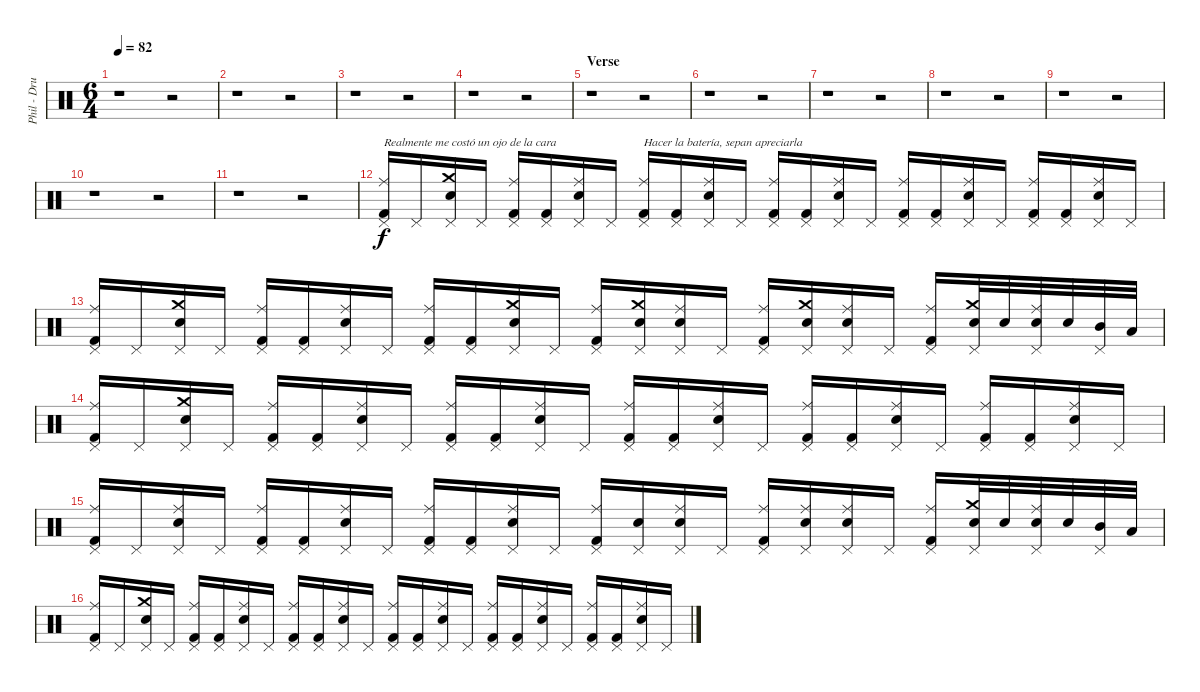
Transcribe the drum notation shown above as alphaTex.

\track ("Phil - Drums" "Phil - Dru") {instrument percussion}
\staff {score}
\articulation defaults
\ts (6 4)
\tempo 82
\clef neutral
\ks c
r.1{dy f} r.2 |
r.1 r.2 |
r.1 r.2 |
r.1 r.2 |
\section ("" "Verse")
r.1 r.2 |
r.1 r.2 |
r.1 r.2 |
r.1 r.2 |
r.1 r.2 |
r.1 r.2 |
r.1 r.2 |
("Ride (middle)" "Kick (hit) 2" "Pedal Hi-Hat (hit)").16{txt "Realmente me costó un ojo de la cara"} "Pedal Hi-Hat (hit)".16 ("Crash medium (hit)" "Electric Snare (hit)" "Pedal Hi-Hat (hit)").16 "Pedal Hi-Hat (hit)".16 ("Ride (middle)" "Kick (hit) 2" "Pedal Hi-Hat (hit)").16 ("Kick (hit) 2" "Pedal Hi-Hat (hit)").16 ("Ride (middle)" "Electric Snare (hit)" "Pedal Hi-Hat (hit)").16 "Pedal Hi-Hat (hit)".16 ("Ride (middle)" "Kick (hit) 2" "Pedal Hi-Hat (hit)").16{txt "Hacer la batería, sepan apreciarla"} ("Kick (hit) 2" "Pedal Hi-Hat (hit)").16 ("Ride (middle)" "Electric Snare (hit)" "Pedal Hi-Hat (hit)").16 "Pedal Hi-Hat (hit)".16 ("Ride (middle)" "Kick (hit) 2" "Pedal Hi-Hat (hit)").16 ("Kick (hit) 2" "Pedal Hi-Hat (hit)").16 ("Ride (middle)" "Electric Snare (hit)" "Pedal Hi-Hat (hit)").16 "Pedal Hi-Hat (hit)".16 ("Ride (middle)" "Kick (hit) 2" "Pedal Hi-Hat (hit)").16 ("Kick (hit) 2" "Pedal Hi-Hat (hit)").16 ("Ride (middle)" "Electric Snare (hit)" "Pedal Hi-Hat (hit)").16 "Pedal Hi-Hat (hit)".16 ("Ride (middle)" "Kick (hit) 2" "Pedal Hi-Hat (hit)").16 ("Kick (hit) 2" "Pedal Hi-Hat (hit)").16 ("Ride (middle)" "Electric Snare (hit)" "Pedal Hi-Hat (hit)").16 "Pedal Hi-Hat (hit)".16 |
("Ride (middle)" "Kick (hit) 2" "Pedal Hi-Hat (hit)").16 "Pedal Hi-Hat (hit)".16 ("Crash medium (hit)" "Electric Snare (hit)" "Pedal Hi-Hat (hit)").16 "Pedal Hi-Hat (hit)".16 ("Ride (middle)" "Kick (hit) 2" "Pedal Hi-Hat (hit)").16 ("Kick (hit) 2" "Pedal Hi-Hat (hit)").16 ("Ride (middle)" "Electric Snare (hit)" "Pedal Hi-Hat (hit)").16 "Pedal Hi-Hat (hit)".16 ("Ride (middle)" "Kick (hit) 2" "Pedal Hi-Hat (hit)").16 ("Kick (hit) 2" "Pedal Hi-Hat (hit)").16 ("Crash medium (hit)" "Electric Snare (hit)" "Pedal Hi-Hat (hit)").16 "Pedal Hi-Hat (hit)".16 ("Ride (middle)" "Kick (hit) 2" "Pedal Hi-Hat (hit)").16 ("Crash medium (hit)" "Electric Snare (hit)" "Pedal Hi-Hat (hit)").16 ("Ride (middle)" "Electric Snare (hit)" "Pedal Hi-Hat (hit)").16 "Pedal Hi-Hat (hit)".16 ("Ride (middle)" "Kick (hit) 2" "Pedal Hi-Hat (hit)").16 ("Crash medium (hit)" "Electric Snare (hit)" "Pedal Hi-Hat (hit)").16 ("Ride (middle)" "Electric Snare (hit)" "Pedal Hi-Hat (hit)").16 "Pedal Hi-Hat (hit)".16 ("Ride (middle)" "Kick (hit) 2" "Pedal Hi-Hat (hit)").16 ("Crash medium (hit)" "Electric Snare (hit)" "Pedal Hi-Hat (hit)").32 "Electric Snare (hit)".32 ("Ride (middle)" "Electric Snare (hit)" "Pedal Hi-Hat (hit)").32 "Electric Snare (hit)".32 ("Mid Tom (hit)" "Pedal Hi-Hat (hit)").32 "Low Tom (hit)".32 |
("Ride (middle)" "Kick (hit) 2" "Pedal Hi-Hat (hit)").16 "Pedal Hi-Hat (hit)".16 ("Crash medium (hit)" "Electric Snare (hit)" "Pedal Hi-Hat (hit)").16 "Pedal Hi-Hat (hit)".16 ("Ride (middle)" "Kick (hit) 2" "Pedal Hi-Hat (hit)").16 ("Kick (hit) 2" "Pedal Hi-Hat (hit)").16 ("Ride (middle)" "Electric Snare (hit)" "Pedal Hi-Hat (hit)").16 "Pedal Hi-Hat (hit)".16 ("Ride (middle)" "Kick (hit) 2" "Pedal Hi-Hat (hit)").16 ("Kick (hit) 2" "Pedal Hi-Hat (hit)").16 ("Ride (middle)" "Electric Snare (hit)" "Pedal Hi-Hat (hit)").16 "Pedal Hi-Hat (hit)".16 ("Ride (middle)" "Kick (hit) 2" "Pedal Hi-Hat (hit)").16 ("Kick (hit) 2" "Pedal Hi-Hat (hit)").16 ("Ride (middle)" "Electric Snare (hit)" "Pedal Hi-Hat (hit)").16 "Pedal Hi-Hat (hit)".16 ("Ride (middle)" "Kick (hit) 2" "Pedal Hi-Hat (hit)").16 ("Kick (hit) 2" "Pedal Hi-Hat (hit)").16 ("Ride (middle)" "Electric Snare (hit)" "Pedal Hi-Hat (hit)").16 "Pedal Hi-Hat (hit)".16 ("Ride (middle)" "Kick (hit) 2" "Pedal Hi-Hat (hit)").16 ("Kick (hit) 2" "Pedal Hi-Hat (hit)").16 ("Ride (middle)" "Electric Snare (hit)" "Pedal Hi-Hat (hit)").16 "Pedal Hi-Hat (hit)".16 |
("Ride (middle)" "Kick (hit) 2" "Pedal Hi-Hat (hit)").16 "Pedal Hi-Hat (hit)".16 ("Ride (middle)" "Electric Snare (hit)" "Pedal Hi-Hat (hit)").16 "Pedal Hi-Hat (hit)".16 ("Ride (middle)" "Kick (hit) 2" "Pedal Hi-Hat (hit)").16 ("Kick (hit) 2" "Pedal Hi-Hat (hit)").16 ("Ride (middle)" "Electric Snare (hit)" "Pedal Hi-Hat (hit)").16 "Pedal Hi-Hat (hit)".16 ("Ride (middle)" "Kick (hit) 2" "Pedal Hi-Hat (hit)").16 ("Kick (hit) 2" "Pedal Hi-Hat (hit)").16 ("Ride (middle)" "Electric Snare (hit)" "Pedal Hi-Hat (hit)").16 "Pedal Hi-Hat (hit)".16 ("Ride (middle)" "Kick (hit) 2" "Pedal Hi-Hat (hit)").16 ("Electric Snare (hit)" "Pedal Hi-Hat (hit)").16 ("Ride (middle)" "Electric Snare (hit)" "Pedal Hi-Hat (hit)").16 "Pedal Hi-Hat (hit)".16 ("Ride (middle)" "Kick (hit) 2" "Pedal Hi-Hat (hit)").16 ("Ride (middle)" "Electric Snare (hit)" "Pedal Hi-Hat (hit)").16 ("Ride (middle)" "Electric Snare (hit)" "Pedal Hi-Hat (hit)").16 "Pedal Hi-Hat (hit)".16 ("Ride (middle)" "Kick (hit) 2" "Pedal Hi-Hat (hit)").16 ("Crash medium (hit)" "Electric Snare (hit)" "Pedal Hi-Hat (hit)").32 "Electric Snare (hit)".32 ("Ride (middle)" "Electric Snare (hit)" "Pedal Hi-Hat (hit)").32 "Electric Snare (hit)".32 ("Mid Tom (hit)" "Pedal Hi-Hat (hit)").32 "Low Tom (hit)".32 |
("Ride (middle)" "Kick (hit) 2" "Pedal Hi-Hat (hit)").16 "Pedal Hi-Hat (hit)".16 ("Crash medium (hit)" "Electric Snare (hit)" "Pedal Hi-Hat (hit)").16 "Pedal Hi-Hat (hit)".16 ("Ride (middle)" "Kick (hit) 2" "Pedal Hi-Hat (hit)").16 ("Kick (hit) 2" "Pedal Hi-Hat (hit)").16 ("Ride (middle)" "Electric Snare (hit)" "Pedal Hi-Hat (hit)").16 "Pedal Hi-Hat (hit)".16 ("Ride (middle)" "Kick (hit) 2" "Pedal Hi-Hat (hit)").16 ("Kick (hit) 2" "Pedal Hi-Hat (hit)").16 ("Ride (middle)" "Electric Snare (hit)" "Pedal Hi-Hat (hit)").16 "Pedal Hi-Hat (hit)".16 ("Ride (middle)" "Kick (hit) 2" "Pedal Hi-Hat (hit)").16 ("Kick (hit) 2" "Pedal Hi-Hat (hit)").16 ("Ride (middle)" "Electric Snare (hit)" "Pedal Hi-Hat (hit)").16 "Pedal Hi-Hat (hit)".16 ("Ride (middle)" "Kick (hit) 2" "Pedal Hi-Hat (hit)").16 ("Kick (hit) 2" "Pedal Hi-Hat (hit)").16 ("Ride (middle)" "Electric Snare (hit)" "Pedal Hi-Hat (hit)").16 "Pedal Hi-Hat (hit)".16 ("Ride (middle)" "Kick (hit) 2" "Pedal Hi-Hat (hit)").16 ("Kick (hit) 2" "Pedal Hi-Hat (hit)").16 ("Ride (middle)" "Electric Snare (hit)" "Pedal Hi-Hat (hit)").16 "Pedal Hi-Hat (hit)".16
